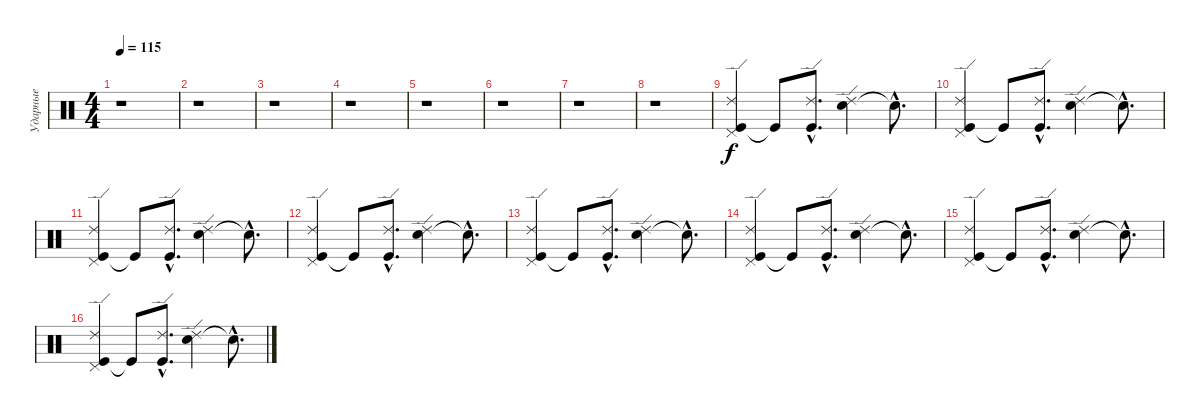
\track ("Ударные" "Ударные") {instrument percussion}
\staff {score}
\articulation defaults
\ts (4 4)
\tempo 115
\clef neutral
\ks c
r.1{dy f} |
r.1 |
r.1 |
r.1 |
r.1 |
r.1 |
r.1 |
r.1 |
("Kick (hit)" "Ride (edge) 2" "Pedal Hi-Hat (hit)").4 "Kick (hit)"{t}.8 ("Kick (hit)"{hac} "Ride (edge) 2"{hac}).8{d} ("Electric Snare (hit)" "Ride (edge) 2").4 "Snare (hit)"{hac t}.8{d} |
("Kick (hit)" "Ride (edge) 2" "Pedal Hi-Hat (hit)").4 "Kick (hit)"{t}.8 ("Kick (hit)"{hac} "Ride (edge) 2"{hac}).8{d} ("Electric Snare (hit)" "Ride (edge) 2").4 "Snare (hit)"{hac t}.8{d} |
("Kick (hit)" "Ride (edge) 2" "Pedal Hi-Hat (hit)").4 "Kick (hit)"{t}.8 ("Kick (hit)"{hac} "Ride (edge) 2"{hac}).8{d} ("Electric Snare (hit)" "Ride (edge) 2").4 "Snare (hit)"{hac t}.8{d} |
("Kick (hit)" "Ride (edge) 2" "Pedal Hi-Hat (hit)").4 "Kick (hit)"{t}.8 ("Kick (hit)"{hac} "Ride (edge) 2"{hac}).8{d} ("Electric Snare (hit)" "Ride (edge) 2").4 "Snare (hit)"{hac t}.8{d} |
("Kick (hit)" "Ride (edge) 2" "Pedal Hi-Hat (hit)").4 "Kick (hit)"{t}.8 ("Kick (hit)"{hac} "Ride (edge) 2"{hac}).8{d} ("Electric Snare (hit)" "Ride (edge) 2").4 "Snare (hit)"{hac t}.8{d} |
("Kick (hit)" "Ride (edge) 2" "Pedal Hi-Hat (hit)").4 "Kick (hit)"{t}.8 ("Kick (hit)"{hac} "Ride (edge) 2"{hac}).8{d} ("Electric Snare (hit)" "Ride (edge) 2").4 "Snare (hit)"{hac t}.8{d} |
("Kick (hit)" "Ride (edge) 2" "Pedal Hi-Hat (hit)").4 "Kick (hit)"{t}.8 ("Kick (hit)"{hac} "Ride (edge) 2"{hac}).8{d} ("Electric Snare (hit)" "Ride (edge) 2").4 "Snare (hit)"{hac t}.8{d} |
("Kick (hit)" "Ride (edge) 2" "Pedal Hi-Hat (hit)").4 "Kick (hit)"{t}.8 ("Kick (hit)"{hac} "Ride (edge) 2"{hac}).8{d} ("Electric Snare (hit)" "Ride (edge) 2").4 "Snare (hit)"{hac t}.8{d}
